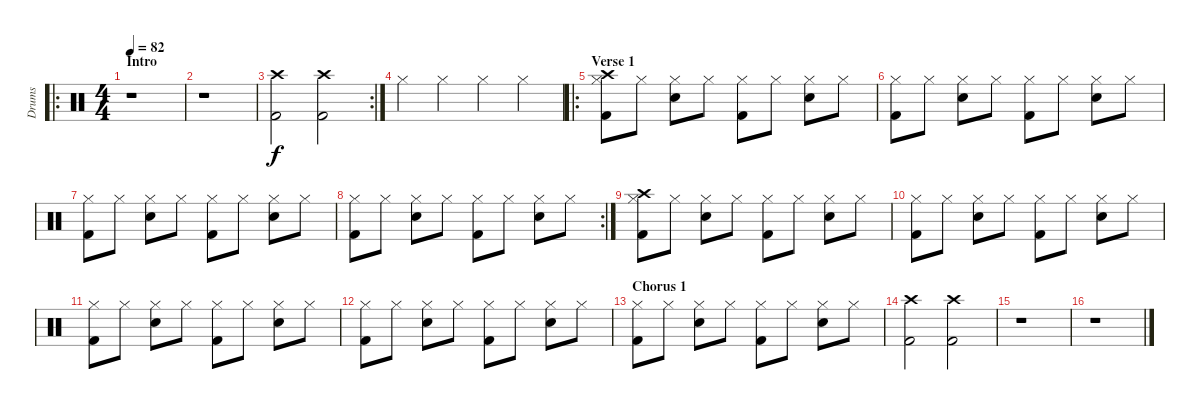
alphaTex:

\track ("Drums" "Drums") {instrument percussion}
\staff {score}
\articulation defaults
\ro
\ts (4 4)
\section ("" "Intro")
\tempo 82
\clef neutral
\ks c
r.1{dy f} |
r.1 |
\rc 2
("Kick (hit) 2" "Crash high (hit)").2 ("Kick (hit) 2" "Crash high (hit)").2 |
"Hi-Hat (closed)".4 "Hi-Hat (closed)".4 "Hi-Hat (closed)".4 "Hi-Hat (closed)".4 |
\ro
\section ("" "Verse 1")
("Hi-Hat (closed)" "Kick (hit) 2" "Crash high (hit)").8 "Hi-Hat (closed)".8 ("Hi-Hat (closed)" "Snare (hit) 2").8 "Hi-Hat (closed)".8 ("Hi-Hat (closed)" "Kick (hit) 2").8 "Hi-Hat (closed)".8 ("Hi-Hat (closed)" "Snare (hit) 2").8 "Hi-Hat (closed)".8 |
("Hi-Hat (closed)" "Kick (hit) 2").8 "Hi-Hat (closed)".8 ("Hi-Hat (closed)" "Snare (hit) 2").8 "Hi-Hat (closed)".8 ("Hi-Hat (closed)" "Kick (hit) 2").8 "Hi-Hat (closed)".8 ("Hi-Hat (closed)" "Snare (hit) 2").8 "Hi-Hat (closed)".8 |
("Hi-Hat (closed)" "Kick (hit) 2").8 "Hi-Hat (closed)".8 ("Hi-Hat (closed)" "Snare (hit) 2").8 "Hi-Hat (closed)".8 ("Hi-Hat (closed)" "Kick (hit) 2").8 "Hi-Hat (closed)".8 ("Hi-Hat (closed)" "Snare (hit) 2").8 "Hi-Hat (closed)".8 |
\rc 2
("Hi-Hat (closed)" "Kick (hit) 2").8 "Hi-Hat (closed)".8 ("Hi-Hat (closed)" "Snare (hit) 2").8 "Hi-Hat (closed)".8 ("Hi-Hat (closed)" "Kick (hit) 2").8 "Hi-Hat (closed)".8 ("Hi-Hat (closed)" "Snare (hit) 2").8 "Hi-Hat (closed)".8 |
("Hi-Hat (closed)" "Kick (hit) 2" "Crash high (hit)").8 "Hi-Hat (closed)".8 ("Hi-Hat (closed)" "Snare (hit) 2").8 "Hi-Hat (closed)".8 ("Hi-Hat (closed)" "Kick (hit) 2").8 "Hi-Hat (closed)".8 ("Hi-Hat (closed)" "Snare (hit) 2").8 "Hi-Hat (closed)".8 |
("Hi-Hat (closed)" "Kick (hit) 2").8 "Hi-Hat (closed)".8 ("Hi-Hat (closed)" "Snare (hit) 2").8 "Hi-Hat (closed)".8 ("Hi-Hat (closed)" "Kick (hit) 2").8 "Hi-Hat (closed)".8 ("Hi-Hat (closed)" "Snare (hit) 2").8 "Hi-Hat (closed)".8 |
("Hi-Hat (closed)" "Kick (hit) 2").8 "Hi-Hat (closed)".8 ("Hi-Hat (closed)" "Snare (hit) 2").8 "Hi-Hat (closed)".8 ("Hi-Hat (closed)" "Kick (hit) 2").8 "Hi-Hat (closed)".8 ("Hi-Hat (closed)" "Snare (hit) 2").8 "Hi-Hat (closed)".8 |
("Hi-Hat (closed)" "Kick (hit) 2").8 "Hi-Hat (closed)".8 ("Hi-Hat (closed)" "Snare (hit) 2").8 "Hi-Hat (closed)".8 ("Hi-Hat (closed)" "Kick (hit) 2").8 "Hi-Hat (closed)".8 ("Hi-Hat (closed)" "Snare (hit) 2").8 "Hi-Hat (closed)".8 |
\section ("" "Chorus 1")
("Hi-Hat (closed)" "Kick (hit) 2").8 "Hi-Hat (closed)".8 ("Hi-Hat (closed)" "Snare (hit) 2").8 "Hi-Hat (closed)".8 ("Hi-Hat (closed)" "Kick (hit) 2").8 "Hi-Hat (closed)".8 ("Hi-Hat (closed)" "Snare (hit) 2").8 "Hi-Hat (closed)".8 |
("Kick (hit) 2" "Crash high (hit)").2 ("Kick (hit) 2" "Crash high (hit)").2 |
r.1 |
r.1
